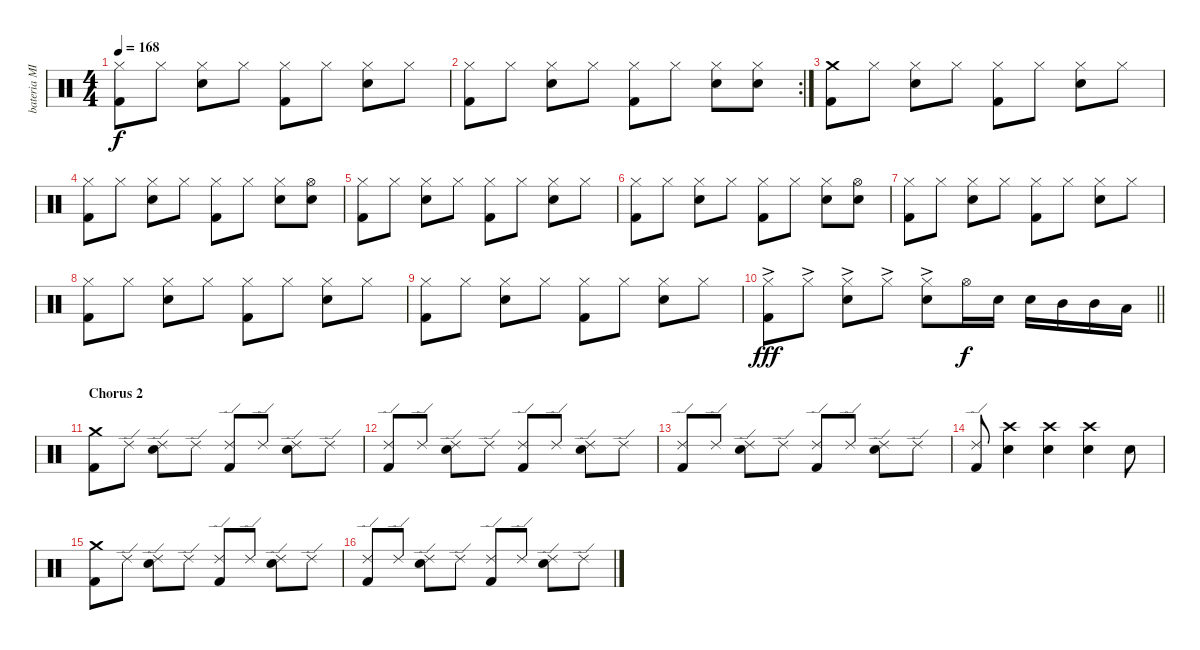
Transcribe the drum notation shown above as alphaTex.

\track ("bateria MIDI" "bateria MI") {instrument percussion}
\staff {score}
\articulation defaults
\ts (4 4)
\tempo 168
\clef neutral
\ks c
("Hi-Hat (closed)" "Kick (hit) 2").8{dy f} "Hi-Hat (closed)".8 ("Hi-Hat (closed)" "Snare (hit) 2").8 "Hi-Hat (closed)".8 ("Hi-Hat (closed)" "Kick (hit) 2").8 "Hi-Hat (closed)".8 ("Hi-Hat (closed)" "Snare (hit) 2").8 "Hi-Hat (closed)".8 |
\rc 2
("Hi-Hat (closed)" "Kick (hit) 2").8 "Hi-Hat (closed)".8 ("Hi-Hat (closed)" "Snare (hit) 2").8 "Hi-Hat (closed)".8 ("Hi-Hat (closed)" "Kick (hit) 2").8 "Hi-Hat (closed)".8 ("Hi-Hat (closed)" "Snare (hit) 2").8 ("Hi-Hat (closed)" "Snare (hit) 2").8 |
("Crash medium (hit)" "Kick (hit) 2").8 "Hi-Hat (closed)".8 ("Hi-Hat (closed)" "Snare (hit) 2").8 "Hi-Hat (closed)".8 ("Hi-Hat (closed)" "Kick (hit) 2").8 "Hi-Hat (closed)".8 ("Hi-Hat (closed)" "Snare (hit) 2").8 "Hi-Hat (closed)".8 |
("Hi-Hat (closed)" "Kick (hit) 2").8 "Hi-Hat (closed)".8 ("Hi-Hat (closed)" "Snare (hit) 2").8 "Hi-Hat (closed)".8 ("Hi-Hat (closed)" "Kick (hit) 2").8 "Hi-Hat (closed)".8 ("Hi-Hat (closed)" "Snare (hit) 2").8 ("Hi-Hat (open)" "Snare (hit) 2").8 |
("Hi-Hat (closed)" "Kick (hit) 2").8 "Hi-Hat (closed)".8 ("Hi-Hat (closed)" "Snare (hit) 2").8 "Hi-Hat (closed)".8 ("Hi-Hat (closed)" "Kick (hit) 2").8 "Hi-Hat (closed)".8 ("Hi-Hat (closed)" "Snare (hit) 2").8 "Hi-Hat (closed)".8 |
("Hi-Hat (closed)" "Kick (hit) 2").8 "Hi-Hat (closed)".8 ("Hi-Hat (closed)" "Snare (hit) 2").8 "Hi-Hat (closed)".8 ("Hi-Hat (closed)" "Kick (hit) 2").8 "Hi-Hat (closed)".8 ("Hi-Hat (closed)" "Snare (hit) 2").8 ("Hi-Hat (open)" "Snare (hit) 2").8 |
("Hi-Hat (closed)" "Kick (hit) 2").8 "Hi-Hat (closed)".8 ("Hi-Hat (closed)" "Snare (hit) 2").8 "Hi-Hat (closed)".8 ("Hi-Hat (closed)" "Kick (hit) 2").8 "Hi-Hat (closed)".8 ("Hi-Hat (closed)" "Snare (hit) 2").8 "Hi-Hat (closed)".8 |
("Hi-Hat (closed)" "Kick (hit) 2").8 "Hi-Hat (closed)".8 ("Hi-Hat (closed)" "Snare (hit) 2").8 "Hi-Hat (closed)".8 ("Hi-Hat (closed)" "Kick (hit) 2").8 "Hi-Hat (closed)".8 ("Hi-Hat (closed)" "Snare (hit) 2").8 "Hi-Hat (closed)".8 |
("Hi-Hat (closed)" "Kick (hit) 2").8 "Hi-Hat (closed)".8 ("Hi-Hat (closed)" "Snare (hit) 2").8 "Hi-Hat (closed)".8 ("Hi-Hat (closed)" "Kick (hit) 2").8 "Hi-Hat (closed)".8 ("Hi-Hat (closed)" "Snare (hit) 2").8 "Hi-Hat (closed)".8 |
\barLineRight lightlight
("Hi-Hat (closed)"{ac} "Kick (hit) 2").8{dy fff} "Hi-Hat (closed)"{ac}.8 ("Hi-Hat (closed)"{ac} "Snare (hit) 2").8 "Hi-Hat (closed)"{ac}.8 ("Hi-Hat (closed)"{ac} "Snare (hit) 2").8 "Hi-Hat (open)".16{dy f} "Snare (hit) 2".16 "Snare (hit) 2".16 "Mid Tom (hit)".16 "Mid Tom (hit)".16 "Low Tom (hit)".16 |
\section ("" "Chorus 2")
("Crash medium (hit)" "Kick (hit) 2").8 "Ride (edge) 2".8 ("Ride (edge) 2" "Snare (hit) 2").8 "Ride (edge) 2".8 ("Ride (edge) 2" "Kick (hit) 2").8 "Ride (edge) 2".8 ("Ride (edge) 2" "Snare (hit) 2").8 "Ride (edge) 2".8 |
("Ride (edge) 2" "Kick (hit) 2").8 "Ride (edge) 2".8 ("Ride (edge) 2" "Snare (hit) 2").8 "Ride (edge) 2".8 ("Ride (edge) 2" "Kick (hit) 2").8 "Ride (edge) 2".8 ("Ride (edge) 2" "Snare (hit) 2").8 "Ride (edge) 2".8 |
("Ride (edge) 2" "Kick (hit) 2").8 "Ride (edge) 2".8 ("Ride (edge) 2" "Snare (hit) 2").8 "Ride (edge) 2".8 ("Ride (edge) 2" "Kick (hit) 2").8 "Ride (edge) 2".8 ("Ride (edge) 2" "Snare (hit) 2").8 "Ride (edge) 2".8 |
("Ride (edge) 2" "Kick (hit) 2").8 ("Crash high (hit)" "Snare (hit) 2").4 ("Crash high (hit)" "Snare (hit) 2").4 ("Crash high (hit)" "Snare (hit) 2").4 "Snare (hit) 2".8 |
("Crash medium (hit)" "Kick (hit) 2").8 "Ride (edge) 2".8 ("Ride (edge) 2" "Snare (hit) 2").8 "Ride (edge) 2".8 ("Ride (edge) 2" "Kick (hit) 2").8 "Ride (edge) 2".8 ("Ride (edge) 2" "Snare (hit) 2").8 "Ride (edge) 2".8 |
("Ride (edge) 2" "Kick (hit) 2").8 "Ride (edge) 2".8 ("Ride (edge) 2" "Snare (hit) 2").8 "Ride (edge) 2".8 ("Ride (edge) 2" "Kick (hit) 2").8 "Ride (edge) 2".8 ("Ride (edge) 2" "Snare (hit) 2").8 "Ride (edge) 2".8
